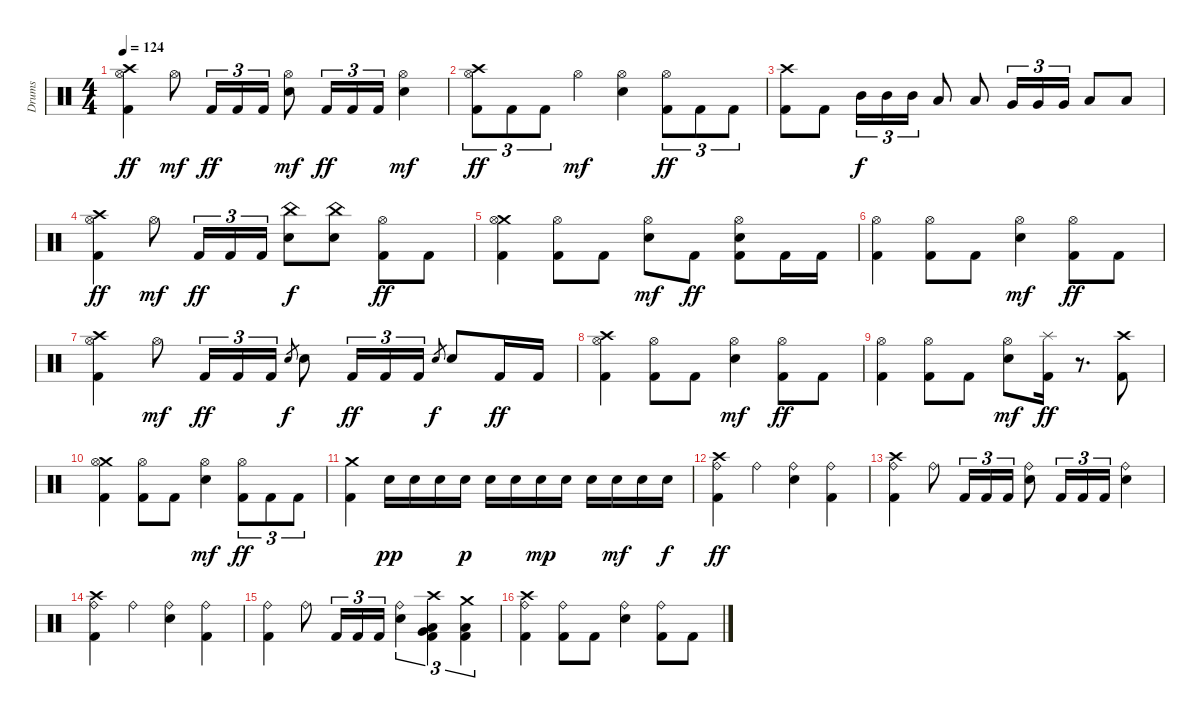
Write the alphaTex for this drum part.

\track ("Drums" "Drums") {instrument percussion}
\staff {score}
\articulation defaults
\ts (4 4)
\tempo 124
\clef neutral
\ks c
("Crash high (hit)" "Hi-Hat (open)" "Kick (hit) 2").4{dy ff} "Hi-Hat (open)".8{dy mf} "Kick (hit) 2".16{tu (3 2) dy ff} "Kick (hit) 2".16{tu (3 2)} "Kick (hit) 2".16{tu (3 2)} ("Hi-Hat (open)" "Snare (hit) 2").8{dy mf} "Kick (hit) 2".16{tu (3 2) dy ff} "Kick (hit) 2".16{tu (3 2)} "Kick (hit) 2".16{tu (3 2)} ("Hi-Hat (open)" "Snare (hit) 2").4{dy mf} |
("Crash high (hit)" "Hi-Hat (open)" "Kick (hit) 2").8{tu (3 2) dy ff} "Kick (hit) 2".8{tu (3 2)} "Kick (hit) 2".8{tu (3 2)} "Hi-Hat (open)".4{dy mf} ("Hi-Hat (open)" "Snare (hit) 2").4 ("Hi-Hat (open)" "Kick (hit) 2").8{tu (3 2) dy ff} "Kick (hit) 2".8{tu (3 2)} "Kick (hit) 2".8{tu (3 2)} |
("Crash high (hit)" "Kick (hit) 2").8 "Kick (hit) 2".8 "Mid Tom (hit)".16{tu (3 2) dy f} "Mid Tom (hit)".16{tu (3 2)} "Mid Tom (hit)".16{tu (3 2)} "Low Tom (hit)".8 "Low Tom (hit)".8 "Very Low Tom (hit)".16{tu (3 2)} "Very Low Tom (hit)".16{tu (3 2)} "Very Low Tom (hit)".16{tu (3 2)} "Low Floor Tom (hit)".8 "Low Floor Tom (hit)".8 |
("Crash high (hit)" "Hi-Hat (open)" "Kick (hit) 2").4{dy ff} "Hi-Hat (open)".8{dy mf} "Kick (hit) 2".16{tu (3 2) dy ff} "Kick (hit) 2".16{tu (3 2)} "Kick (hit) 2".16{tu (3 2)} ("China (hit)" "Snare (hit) 2").8{dy f} ("China (hit)" "Snare (hit) 2").8 ("Hi-Hat (open)" "Kick (hit) 2").8{dy ff} "Kick (hit) 2".8 |
("Crash medium (hit)" "Hi-Hat (open)" "Kick (hit) 2").4 ("Hi-Hat (open)" "Kick (hit) 2").8 "Kick (hit) 2".8 ("Hi-Hat (open)" "Snare (hit) 2").8{dy mf} "Kick (hit) 2".8{dy ff} ("Hi-Hat (open)" "Snare (hit) 2" "Kick (hit) 2").8 "Kick (hit) 2".16 "Kick (hit) 2".16 |
("Hi-Hat (open)" "Kick (hit) 2").4 ("Hi-Hat (open)" "Kick (hit) 2").8 "Kick (hit) 2".8 ("Hi-Hat (open)" "Snare (hit) 2").4{dy mf} ("Hi-Hat (open)" "Kick (hit) 2").8{dy ff} "Kick (hit) 2".8 |
("Crash high (hit)" "Hi-Hat (open)" "Kick (hit) 2").4 "Hi-Hat (open)".8{dy mf} "Kick (hit) 2".16{tu (3 2) dy ff} "Kick (hit) 2".16{tu (3 2)} "Kick (hit) 2".16{tu (3 2)} "Snare (hit) 2".8{gr dy f} "Snare (hit) 2".8 "Kick (hit) 2".16{tu (3 2) dy ff} "Kick (hit) 2".16{tu (3 2)} "Kick (hit) 2".16{tu (3 2)} "Snare (hit) 2".8{gr dy f} "Snare (hit) 2".8 "Kick (hit) 2".16{dy ff} "Kick (hit) 2".16 |
("Crash high (hit)" "Hi-Hat (open)" "Kick (hit) 2").4 ("Hi-Hat (open)" "Kick (hit) 2").8 "Kick (hit) 2".8 ("Hi-Hat (open)" "Snare (hit) 2").4{dy mf} ("Hi-Hat (open)" "Kick (hit) 2").8{dy ff} "Kick (hit) 2".8 |
("Hi-Hat (open)" "Kick (hit) 2").4 ("Hi-Hat (open)" "Kick (hit) 2").8 "Kick (hit) 2".8 ("Hi-Hat (open)" "Snare (hit) 2").8{dy mf} ("Splash (hit)" "Kick (hit) 2").16{dy ff} r.8{d} ("Crash high (hit)" "Kick (hit) 2").8 |
("Crash medium (hit)" "Hi-Hat (open)" "Kick (hit) 2").4 ("Hi-Hat (open)" "Kick (hit) 2").8 "Kick (hit) 2".8 ("Hi-Hat (open)" "Snare (hit) 2").4{dy mf} ("Hi-Hat (open)" "Kick (hit) 2").8{tu (3 2) dy ff} "Kick (hit) 2".8{tu (3 2)} "Kick (hit) 2".8{tu (3 2)} |
("Crash medium (hit)" "Kick (hit) 2").4 "Snare (hit) 2".16{dy pp} "Snare (hit) 2".16 "Snare (hit) 2".16 "Snare (hit) 2".16{dy p} "Snare (hit) 2".16 "Snare (hit) 2".16 "Snare (hit) 2".16{dy mp} "Snare (hit) 2".16 "Snare (hit) 2".16 "Snare (hit) 2".16{dy mf} "Snare (hit) 2".16 "Snare (hit) 2".16{dy f} |
("Crash high (hit)" "Ride (bell)" "Kick (hit) 2").4{dy ff} "Ride (bell)".4 ("Ride (bell)" "Snare (hit) 2").4 ("Ride (bell)" "Kick (hit) 2").4 |
("Crash high (hit)" "Ride (bell)" "Kick (hit) 2").4 "Ride (bell)".8 "Kick (hit) 2".16{tu (3 2)} "Kick (hit) 2".16{tu (3 2)} "Kick (hit) 2".16{tu (3 2)} ("Ride (bell)" "Snare (hit) 2").8 "Kick (hit) 2".16{tu (3 2)} "Kick (hit) 2".16{tu (3 2)} "Kick (hit) 2".16{tu (3 2)} ("Ride (bell)" "Snare (hit) 2").4 |
("Crash high (hit)" "Ride (bell)" "Kick (hit) 2").4 "Ride (bell)".4 ("Ride (bell)" "Snare (hit) 2").4 ("Ride (bell)" "Kick (hit) 2").4 |
("Ride (bell)" "Kick (hit) 2").4 "Ride (bell)".8 "Kick (hit) 2".16{tu (3 2)} "Kick (hit) 2".16{tu (3 2)} "Kick (hit) 2".16{tu (3 2)} ("Ride (bell)" "Snare (hit) 2").4{tu (3 2)} ("Crash high (hit)" "Very Low Tom (hit)" "Low Floor Tom (hit)" "Kick (hit) 2").4{tu (3 2)} ("Crash medium (hit)" "Low Floor Tom (hit)" "Kick (hit) 2").4{tu (3 2)} |
("Crash high (hit)" "Ride (bell)" "Kick (hit) 2").4 ("Ride (bell)" "Kick (hit) 2").8 "Kick (hit) 2".8 ("Ride (bell)" "Snare (hit) 2").4 ("Ride (bell)" "Kick (hit) 2").8 "Kick (hit) 2".8
